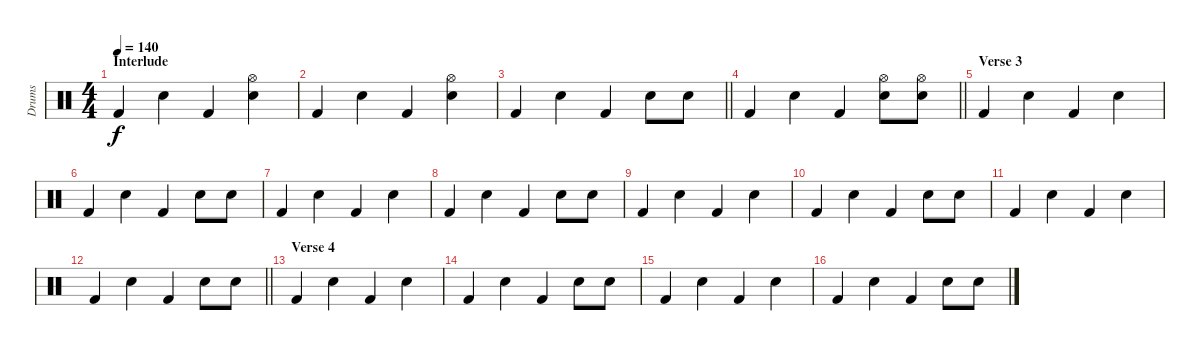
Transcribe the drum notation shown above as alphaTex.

\track ("Drums" "Drums") {instrument percussion}
\staff {score}
\articulation defaults
\ts (4 4)
\section ("" "Interlude")
\tempo 140
\clef neutral
\ks c "Kick (hit) 2".4{dy f} "Snare (hit) 2".4 "Kick (hit) 2".4
("Snare (hit) 2" "Hi-Hat (open)").4 |
"Kick (hit) 2".4 "Snare (hit) 2".4 "Kick (hit) 2".4 ("Snare (hit) 2" "Hi-Hat (open)").4 |
\barLineRight lightlight "Kick (hit) 2".4 "Snare (hit) 2".4 "Kick (hit) 2".4 "Snare (hit) 2".8 "Snare (hit) 2".8
|
\barLineRight lightlight "Kick (hit) 2".4 "Snare (hit) 2".4 "Kick (hit) 2".4
("Snare (hit) 2" "Hi-Hat (open)").8 ("Snare (hit) 2" "Hi-Hat (open)").8 |
\section ("" "Verse 3")
"Kick (hit) 2".4 "Snare (hit) 2".4 "Kick (hit) 2".4 "Snare (hit) 2".4 |
"Kick (hit) 2".4 "Snare (hit) 2".4 "Kick (hit) 2".4 "Snare (hit) 2".8 "Snare (hit) 2".8 |
"Kick (hit) 2".4 "Snare (hit) 2".4 "Kick (hit) 2".4 "Snare (hit) 2".4 |
"Kick (hit) 2".4 "Snare (hit) 2".4 "Kick (hit) 2".4 "Snare (hit) 2".8 "Snare (hit) 2".8 |
"Kick (hit) 2".4 "Snare (hit) 2".4 "Kick (hit) 2".4 "Snare (hit) 2".4 |
"Kick (hit) 2".4 "Snare (hit) 2".4 "Kick (hit) 2".4 "Snare (hit) 2".8 "Snare (hit) 2".8 |
"Kick (hit) 2".4 "Snare (hit) 2".4 "Kick (hit) 2".4 "Snare (hit) 2".4 |
\barLineRight lightlight "Kick (hit) 2".4 "Snare (hit) 2".4 "Kick (hit) 2".4 "Snare (hit) 2".8 "Snare (hit) 2".8
|
\section ("" "Verse 4")
"Kick (hit) 2".4 "Snare (hit) 2".4 "Kick (hit) 2".4 "Snare (hit) 2".4 |
"Kick (hit) 2".4 "Snare (hit) 2".4 "Kick (hit) 2".4 "Snare (hit) 2".8 "Snare (hit) 2".8 |
"Kick (hit) 2".4 "Snare (hit) 2".4 "Kick (hit) 2".4 "Snare (hit) 2".4 |
"Kick (hit) 2".4 "Snare (hit) 2".4 "Kick (hit) 2".4 "Snare (hit) 2".8 "Snare (hit) 2".8
